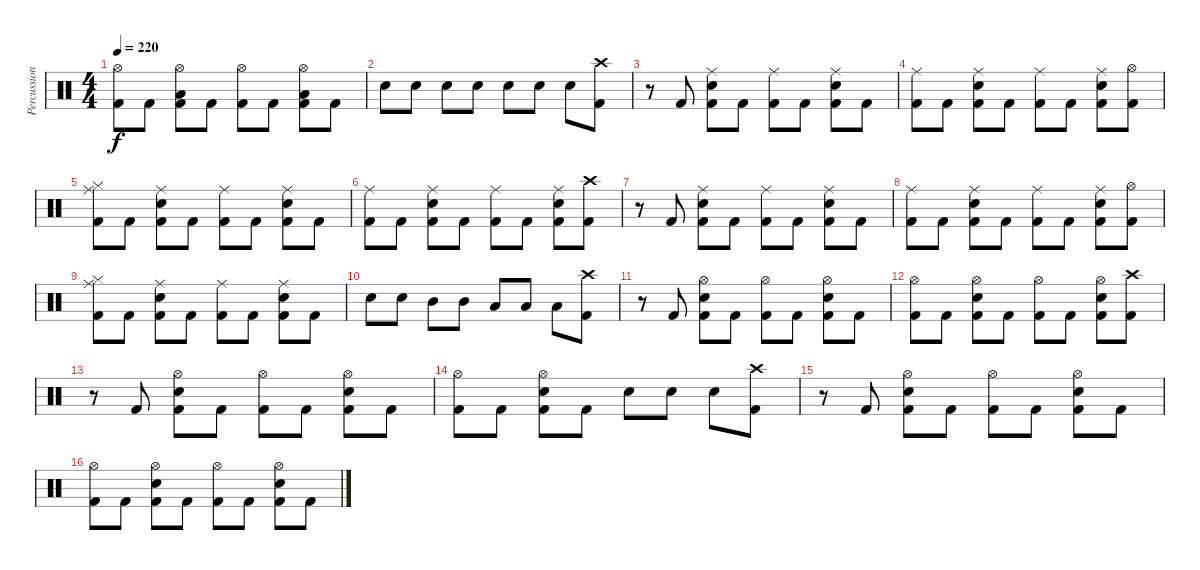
\track ("Percussions" "Percussion") {instrument percussion}
\staff {score}
\articulation defaults
\ts (4 4)
\tempo 220
\clef neutral
\ks c
("Hi-Hat (open)" "Kick (hit) 2").8{dy f} "Kick (hit) 2".8 ("Hi-Hat (open)" "Low Tom (hit)" "Kick (hit) 2").8 "Kick (hit) 2".8 ("Hi-Hat (open)" "Kick (hit) 2").8 "Kick (hit) 2".8 ("Hi-Hat (open)" "Low Tom (hit)" "Kick (hit) 2").8 "Kick (hit) 2".8 |
"Electric Snare (hit)".8 "Electric Snare (hit)".8 "Electric Snare (hit)".8 "Electric Snare (hit)".8 "Electric Snare (hit)".8 "Electric Snare (hit)".8 "Electric Snare (hit)".8 ("Crash high (hit)" "Kick (hit) 2").8 |
r.8 "Kick (hit) 2".8 ("Ride (middle)" "Electric Snare (hit)" "Kick (hit) 2").8 "Kick (hit) 2".8 ("Ride (middle)" "Kick (hit) 2").8 "Kick (hit) 2".8 ("Ride (middle)" "Electric Snare (hit)" "Kick (hit) 2").8 "Kick (hit) 2".8 |
("Ride (middle)" "Kick (hit) 2").8 "Kick (hit) 2".8 ("Ride (middle)" "Electric Snare (hit)" "Kick (hit) 2").8 "Kick (hit) 2".8 ("Ride (middle)" "Kick (hit) 2").8 "Kick (hit) 2".8 ("Ride (middle)" "Electric Snare (hit)" "Kick (hit) 2").8 ("Hi-Hat (open)" "Kick (hit) 2").8 |
("Ride (middle)" "Hi-Hat (closed)" "Kick (hit) 2").8 "Kick (hit) 2".8 ("Ride (middle)" "Electric Snare (hit)" "Kick (hit) 2").8 "Kick (hit) 2".8 ("Ride (middle)" "Kick (hit) 2").8 "Kick (hit) 2".8 ("Ride (middle)" "Electric Snare (hit)" "Kick (hit) 2").8 "Kick (hit) 2".8 |
("Ride (middle)" "Kick (hit) 2").8 "Kick (hit) 2".8 ("Ride (middle)" "Electric Snare (hit)" "Kick (hit) 2").8 "Kick (hit) 2".8 ("Ride (middle)" "Kick (hit) 2").8 "Kick (hit) 2".8 ("Ride (middle)" "Electric Snare (hit)" "Kick (hit) 2").8 ("Crash high (hit)" "Kick (hit) 2").8 |
r.8 "Kick (hit) 2".8 ("Ride (middle)" "Electric Snare (hit)" "Kick (hit) 2").8 "Kick (hit) 2".8 ("Ride (middle)" "Kick (hit) 2").8 "Kick (hit) 2".8 ("Ride (middle)" "Electric Snare (hit)" "Kick (hit) 2").8 "Kick (hit) 2".8 |
("Ride (middle)" "Kick (hit) 2").8 "Kick (hit) 2".8 ("Ride (middle)" "Electric Snare (hit)" "Kick (hit) 2").8 "Kick (hit) 2".8 ("Ride (middle)" "Kick (hit) 2").8 "Kick (hit) 2".8 ("Ride (middle)" "Electric Snare (hit)" "Kick (hit) 2").8 ("Hi-Hat (open)" "Kick (hit) 2").8 |
("Ride (middle)" "Hi-Hat (closed)" "Kick (hit) 2").8 "Kick (hit) 2".8 ("Ride (middle)" "Electric Snare (hit)" "Kick (hit) 2").8 "Kick (hit) 2".8 ("Ride (middle)" "Kick (hit) 2").8 "Kick (hit) 2".8 ("Ride (middle)" "Electric Snare (hit)" "Kick (hit) 2").8 "Kick (hit) 2".8 |
"Electric Snare (hit)".8 "Electric Snare (hit)".8 "Mid Tom (hit)".8 "Mid Tom (hit)".8 "Low Tom (hit)".8 "Low Tom (hit)".8 "Low Floor Tom (hit)".8 ("Crash high (hit)" "Kick (hit) 2").8 |
r.8 "Kick (hit) 2".8 ("Hi-Hat (open)" "Electric Snare (hit)" "Kick (hit) 2").8 "Kick (hit) 2".8 ("Hi-Hat (open)" "Kick (hit) 2").8 "Kick (hit) 2".8 ("Hi-Hat (open)" "Electric Snare (hit)" "Kick (hit) 2").8 "Kick (hit) 2".8 |
("Hi-Hat (open)" "Kick (hit) 2").8 "Kick (hit) 2".8 ("Hi-Hat (open)" "Electric Snare (hit)" "Kick (hit) 2").8 "Kick (hit) 2".8 ("Hi-Hat (open)" "Kick (hit) 2").8 "Kick (hit) 2".8 ("Hi-Hat (open)" "Electric Snare (hit)" "Kick (hit) 2").8 ("Crash high (hit)" "Kick (hit) 2").8 |
r.8 "Kick (hit) 2".8 ("Hi-Hat (open)" "Electric Snare (hit)" "Kick (hit) 2").8 "Kick (hit) 2".8 ("Hi-Hat (open)" "Kick (hit) 2").8 "Kick (hit) 2".8 ("Hi-Hat (open)" "Electric Snare (hit)" "Kick (hit) 2").8 "Kick (hit) 2".8 |
("Hi-Hat (open)" "Kick (hit) 2").8 "Kick (hit) 2".8 ("Hi-Hat (open)" "Electric Snare (hit)" "Kick (hit) 2").8 "Kick (hit) 2".8 "Electric Snare (hit)".8 "Electric Snare (hit)".8 "Electric Snare (hit)".8 ("Crash high (hit)" "Kick (hit) 2").8 |
r.8 "Kick (hit) 2".8 ("Hi-Hat (open)" "Electric Snare (hit)" "Kick (hit) 2").8 "Kick (hit) 2".8 ("Hi-Hat (open)" "Kick (hit) 2").8 "Kick (hit) 2".8 ("Hi-Hat (open)" "Electric Snare (hit)" "Kick (hit) 2").8 "Kick (hit) 2".8 |
("Hi-Hat (open)" "Kick (hit) 2").8 "Kick (hit) 2".8 ("Hi-Hat (open)" "Electric Snare (hit)" "Kick (hit) 2").8 "Kick (hit) 2".8 ("Hi-Hat (open)" "Kick (hit) 2").8 "Kick (hit) 2".8 ("Hi-Hat (open)" "Electric Snare (hit)" "Kick (hit) 2").8 "Kick (hit) 2".8
